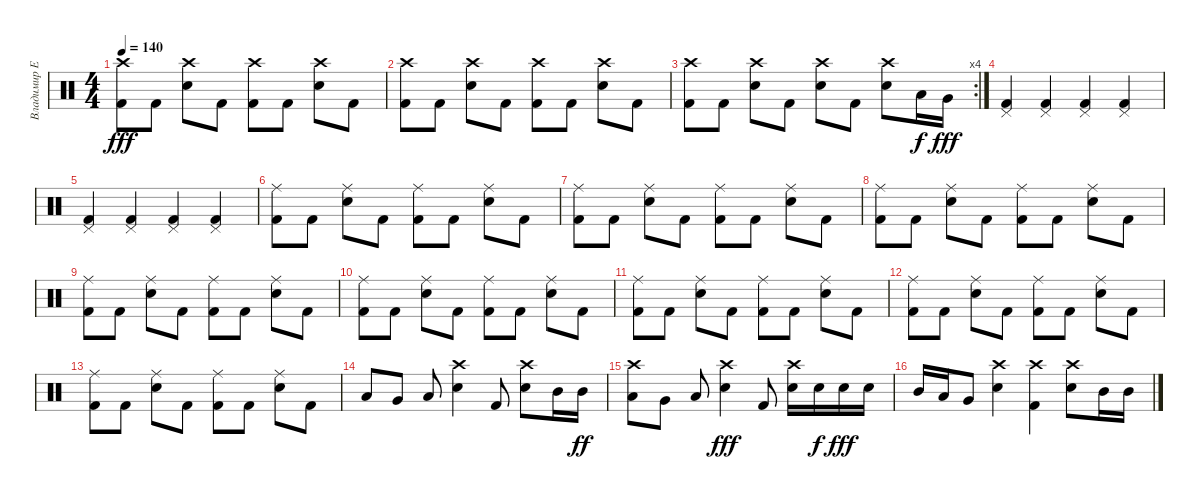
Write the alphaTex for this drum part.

\track ("Владимир Ермаков" "Владимир Е") {instrument percussion}
\staff {score}
\articulation defaults
\ts (4 4)
\tempo 140
\clef neutral
\ks c
("Crash high (hit)" "Kick (hit) 2").8{dy fff} "Kick (hit) 2".8 ("Crash high (hit)" "Electric Snare (hit)").8 "Kick (hit) 2".8 ("Crash high (hit)" "Kick (hit) 2").8 "Kick (hit) 2".8 ("Crash high (hit)" "Electric Snare (hit)").8 "Kick (hit) 2".8 |
("Crash high (hit)" "Kick (hit) 2").8 "Kick (hit) 2".8 ("Crash high (hit)" "Electric Snare (hit)").8 "Kick (hit) 2".8 ("Crash high (hit)" "Kick (hit) 2").8 "Kick (hit) 2".8 ("Crash high (hit)" "Electric Snare (hit)").8 "Kick (hit) 2".8 |
\rc 4
("Crash high (hit)" "Kick (hit) 2").8 "Kick (hit) 2".8 ("Crash high (hit)" "Electric Snare (hit)").8 "Kick (hit) 2".8 ("Crash high (hit)" "Electric Snare (hit)").8 "Kick (hit) 2".8 ("Crash high (hit)" "Electric Snare (hit)").8 "Low Tom (hit)".16{dy f} "Very Low Tom (hit)".16{dy fff} |
("Pedal Hi-Hat (hit)" "Kick (hit) 2").4 ("Pedal Hi-Hat (hit)" "Kick (hit) 2").4 ("Pedal Hi-Hat (hit)" "Kick (hit) 2").4 ("Pedal Hi-Hat (hit)" "Kick (hit) 2").4 |
("Pedal Hi-Hat (hit)" "Kick (hit) 2").4 ("Pedal Hi-Hat (hit)" "Kick (hit) 2").4 ("Pedal Hi-Hat (hit)" "Kick (hit) 2").4 ("Pedal Hi-Hat (hit)" "Kick (hit) 2").4 |
("Ride (middle)" "Kick (hit) 2").8 "Kick (hit) 2".8 ("Ride (middle)" "Electric Snare (hit)").8 "Kick (hit) 2".8 ("Ride (middle)" "Kick (hit) 2").8 "Kick (hit) 2".8 ("Ride (middle)" "Electric Snare (hit)").8 "Kick (hit) 2".8 |
("Ride (middle)" "Kick (hit) 2").8 "Kick (hit) 2".8 ("Ride (middle)" "Electric Snare (hit)").8 "Kick (hit) 2".8 ("Ride (middle)" "Kick (hit) 2").8 "Kick (hit) 2".8 ("Ride (middle)" "Electric Snare (hit)").8 "Kick (hit) 2".8 |
("Ride (middle)" "Kick (hit) 2").8 "Kick (hit) 2".8 ("Ride (middle)" "Electric Snare (hit)").8 "Kick (hit) 2".8 ("Ride (middle)" "Kick (hit) 2").8 "Kick (hit) 2".8 ("Ride (middle)" "Electric Snare (hit)").8 "Kick (hit) 2".8 |
("Ride (middle)" "Kick (hit) 2").8 "Kick (hit) 2".8 ("Ride (middle)" "Electric Snare (hit)").8 "Kick (hit) 2".8 ("Ride (middle)" "Kick (hit) 2").8 "Kick (hit) 2".8 ("Ride (middle)" "Electric Snare (hit)").8 "Kick (hit) 2".8 |
("Ride (middle)" "Kick (hit) 2").8 "Kick (hit) 2".8 ("Ride (middle)" "Electric Snare (hit)").8 "Kick (hit) 2".8 ("Ride (middle)" "Kick (hit) 2").8 "Kick (hit) 2".8 ("Ride (middle)" "Electric Snare (hit)").8 "Kick (hit) 2".8 |
("Ride (middle)" "Kick (hit) 2").8 "Kick (hit) 2".8 ("Ride (middle)" "Electric Snare (hit)").8 "Kick (hit) 2".8 ("Ride (middle)" "Kick (hit) 2").8 "Kick (hit) 2".8 ("Ride (middle)" "Electric Snare (hit)").8 "Kick (hit) 2".8 |
("Ride (middle)" "Kick (hit) 2").8 "Kick (hit) 2".8 ("Ride (middle)" "Electric Snare (hit)").8 "Kick (hit) 2".8 ("Ride (middle)" "Kick (hit) 2").8 "Kick (hit) 2".8 ("Ride (middle)" "Electric Snare (hit)").8 "Kick (hit) 2".8 |
("Ride (middle)" "Kick (hit) 2").8 "Kick (hit) 2".8 ("Ride (middle)" "Electric Snare (hit)").8 "Kick (hit) 2".8 ("Ride (middle)" "Kick (hit) 2").8 "Kick (hit) 2".8 ("Ride (middle)" "Electric Snare (hit)").8 "Kick (hit) 2".8 |
"Low Tom (hit)".8 "Very Low Tom (hit)".8 "Low Floor Tom (hit)".8 ("Crash high (hit)" "Electric Snare (hit)").4 "Kick (hit) 2".8 ("Crash high (hit)" "Electric Snare (hit)").8 "Mid Tom (hit)".16 "Mid Tom (hit)".16{dy ff} |
("Crash high (hit)" "Low Tom (hit)").8 "Very Low Tom (hit)".8 "Low Floor Tom (hit)".8 ("Crash high (hit)" "Electric Snare (hit)").4{dy fff} "Kick (hit) 2".8 ("Crash high (hit)" "Electric Snare (hit)").16 "Electric Snare (hit)".16{dy f} "Electric Snare (hit)".16{dy fff} "Electric Snare (hit)".16 |
"Mid Tom (hit)".16 "Low Tom (hit)".16 "Very Low Tom (hit)".8 ("Crash high (hit)" "Electric Snare (hit)").4 ("Crash high (hit)" "Kick (hit) 2").4 ("Crash high (hit)" "Electric Snare (hit)").8 "Mid Tom (hit)".16 "Mid Tom (hit)".16
